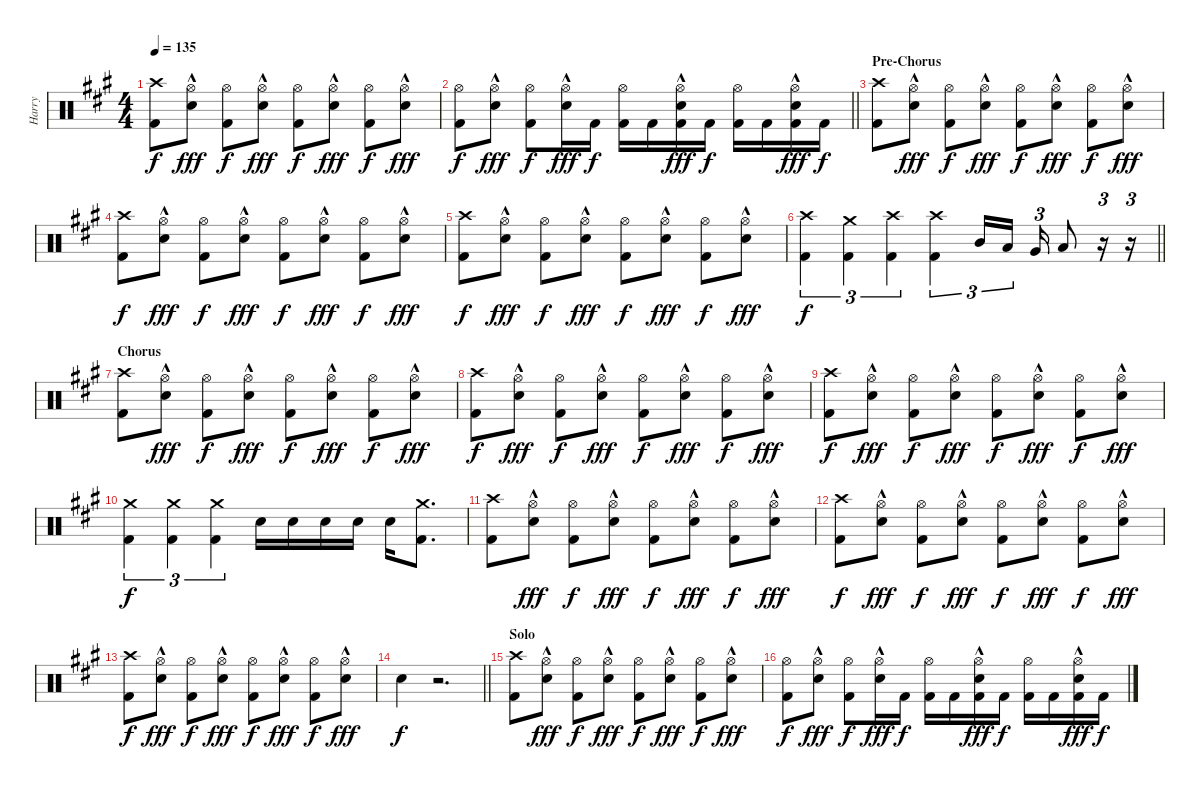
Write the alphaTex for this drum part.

\track ("Harry" "Harry") {instrument percussion}
\staff {score}
\articulation defaults
\ts (4 4)
\tempo 135
\clef neutral
\ks a
("Crash high (hit)" "Kick (hit) 2").8{dy f} ("Hi-Hat (open)"{hac} "Snare (hit) 2"{hac}).8{dy fff} ("Hi-Hat (open)" "Kick (hit) 2").8{dy f} ("Hi-Hat (open)"{hac} "Snare (hit) 2"{hac}).8{dy fff} ("Hi-Hat (open)" "Kick (hit) 2").8{dy f} ("Hi-Hat (open)"{hac} "Snare (hit) 2"{hac}).8{dy fff} ("Hi-Hat (open)" "Kick (hit) 2").8{dy f} ("Hi-Hat (open)"{hac} "Snare (hit) 2"{hac}).8{dy fff} |
\barLineRight lightlight
("Hi-Hat (open)" "Kick (hit) 2").8{dy f} ("Hi-Hat (open)"{hac} "Snare (hit) 2"{hac}).8{dy fff} ("Hi-Hat (open)" "Kick (hit) 2").8{dy f} ("Hi-Hat (open)"{hac} "Snare (hit) 2"{hac}).16{dy fff} "Kick (hit) 2".16{dy f} ("Hi-Hat (open)" "Kick (hit) 2").16 "Kick (hit) 2".16 ("Snare (hit) 2"{hac} "Hi-Hat (open)"{hac} "Kick (hit) 2"{hac}).16{dy fff} "Kick (hit) 2".16{dy f} ("Hi-Hat (open)" "Kick (hit) 2").16 "Kick (hit) 2".16 ("Snare (hit) 2"{hac} "Hi-Hat (open)"{hac} "Kick (hit) 2"{hac}).16{dy fff} "Kick (hit) 2".16{dy f} |
\section ("" "Pre-Chorus")
("Crash high (hit)" "Kick (hit) 2").8 ("Hi-Hat (open)"{hac} "Snare (hit) 2"{hac}).8{dy fff} ("Hi-Hat (open)" "Kick (hit) 2").8{dy f} ("Hi-Hat (open)"{hac} "Snare (hit) 2"{hac}).8{dy fff} ("Hi-Hat (open)" "Kick (hit) 2").8{dy f} ("Hi-Hat (open)"{hac} "Snare (hit) 2"{hac}).8{dy fff} ("Hi-Hat (open)" "Kick (hit) 2").8{dy f} ("Hi-Hat (open)"{hac} "Snare (hit) 2"{hac}).8{dy fff} |
("Crash high (hit)" "Kick (hit) 2").8{dy f} ("Hi-Hat (open)"{hac} "Snare (hit) 2"{hac}).8{dy fff} ("Hi-Hat (open)" "Kick (hit) 2").8{dy f} ("Hi-Hat (open)"{hac} "Snare (hit) 2"{hac}).8{dy fff} ("Hi-Hat (open)" "Kick (hit) 2").8{dy f} ("Hi-Hat (open)"{hac} "Snare (hit) 2"{hac}).8{dy fff} ("Hi-Hat (open)" "Kick (hit) 2").8{dy f} ("Hi-Hat (open)"{hac} "Snare (hit) 2"{hac}).8{dy fff} |
("Crash high (hit)" "Kick (hit) 2").8{dy f} ("Hi-Hat (open)"{hac} "Snare (hit) 2"{hac}).8{dy fff} ("Hi-Hat (open)" "Kick (hit) 2").8{dy f} ("Hi-Hat (open)"{hac} "Snare (hit) 2"{hac}).8{dy fff} ("Hi-Hat (open)" "Kick (hit) 2").8{dy f} ("Hi-Hat (open)"{hac} "Snare (hit) 2"{hac}).8{dy fff} ("Hi-Hat (open)" "Kick (hit) 2").8{dy f} ("Hi-Hat (open)"{hac} "Snare (hit) 2"{hac}).8{dy fff} |
\barLineRight lightlight
("Crash high (hit)" "Kick (hit) 2").4{tu (3 2) dy f} ("Crash medium (hit)" "Kick (hit) 2").4{tu (3 2)} ("Crash high (hit)" "Kick (hit) 2").4{tu (3 2)} ("Crash high (hit)" "Kick (hit) 2").4{tu (3 2)} "Mid Tom (hit)".16{tu (3 2)} "Low Tom (hit)".16{tu (3 2)} "Very Low Tom (hit)".16{tu (3 2)} "Low Floor Tom (hit)".8 r.16{tu (3 2)} r.16{tu (3 2)} |
\section ("" "Chorus")
("Crash high (hit)" "Kick (hit) 2").8 ("Hi-Hat (open)"{hac} "Snare (hit) 2"{hac}).8{dy fff} ("Hi-Hat (open)" "Kick (hit) 2").8{dy f} ("Hi-Hat (open)"{hac} "Snare (hit) 2"{hac}).8{dy fff} ("Hi-Hat (open)" "Kick (hit) 2").8{dy f} ("Hi-Hat (open)"{hac} "Snare (hit) 2"{hac}).8{dy fff} ("Hi-Hat (open)" "Kick (hit) 2").8{dy f} ("Hi-Hat (open)"{hac} "Snare (hit) 2"{hac}).8{dy fff} |
("Crash high (hit)" "Kick (hit) 2").8{dy f} ("Hi-Hat (open)"{hac} "Snare (hit) 2"{hac}).8{dy fff} ("Hi-Hat (open)" "Kick (hit) 2").8{dy f} ("Hi-Hat (open)"{hac} "Snare (hit) 2"{hac}).8{dy fff} ("Hi-Hat (open)" "Kick (hit) 2").8{dy f} ("Hi-Hat (open)"{hac} "Snare (hit) 2"{hac}).8{dy fff} ("Hi-Hat (open)" "Kick (hit) 2").8{dy f} ("Hi-Hat (open)"{hac} "Snare (hit) 2"{hac}).8{dy fff} |
("Crash high (hit)" "Kick (hit) 2").8{dy f} ("Hi-Hat (open)"{hac} "Snare (hit) 2"{hac}).8{dy fff} ("Hi-Hat (open)" "Kick (hit) 2").8{dy f} ("Hi-Hat (open)"{hac} "Snare (hit) 2"{hac}).8{dy fff} ("Hi-Hat (open)" "Kick (hit) 2").8{dy f} ("Hi-Hat (open)"{hac} "Snare (hit) 2"{hac}).8{dy fff} ("Hi-Hat (open)" "Kick (hit) 2").8{dy f} ("Hi-Hat (open)"{hac} "Snare (hit) 2"{hac}).8{dy fff} |
("Crash medium (hit)" "Kick (hit) 2").4{tu (3 2) dy f} ("Crash medium (hit)" "Kick (hit) 2").4{tu (3 2)} ("Crash medium (hit)" "Kick (hit) 2").4{tu (3 2)} "Snare (hit) 2".16 "Snare (hit) 2".16 "Snare (hit) 2".16 "Snare (hit) 2".16 "Snare (hit) 2".16 ("Crash medium (hit)" "Kick (hit) 2").8{d} |
("Crash high (hit)" "Kick (hit) 2").8 ("Hi-Hat (open)"{hac} "Snare (hit) 2"{hac}).8{dy fff} ("Hi-Hat (open)" "Kick (hit) 2").8{dy f} ("Hi-Hat (open)"{hac} "Snare (hit) 2"{hac}).8{dy fff} ("Hi-Hat (open)" "Kick (hit) 2").8{dy f} ("Hi-Hat (open)"{hac} "Snare (hit) 2"{hac}).8{dy fff} ("Hi-Hat (open)" "Kick (hit) 2").8{dy f} ("Hi-Hat (open)"{hac} "Snare (hit) 2"{hac}).8{dy fff} |
("Crash high (hit)" "Kick (hit) 2").8{dy f} ("Hi-Hat (open)"{hac} "Snare (hit) 2"{hac}).8{dy fff} ("Hi-Hat (open)" "Kick (hit) 2").8{dy f} ("Hi-Hat (open)"{hac} "Snare (hit) 2"{hac}).8{dy fff} ("Hi-Hat (open)" "Kick (hit) 2").8{dy f} ("Hi-Hat (open)"{hac} "Snare (hit) 2"{hac}).8{dy fff} ("Hi-Hat (open)" "Kick (hit) 2").8{dy f} ("Hi-Hat (open)"{hac} "Snare (hit) 2"{hac}).8{dy fff} |
("Crash high (hit)" "Kick (hit) 2").8{dy f} ("Hi-Hat (open)"{hac} "Snare (hit) 2"{hac}).8{dy fff} ("Hi-Hat (open)" "Kick (hit) 2").8{dy f} ("Hi-Hat (open)"{hac} "Snare (hit) 2"{hac}).8{dy fff} ("Hi-Hat (open)" "Kick (hit) 2").8{dy f} ("Hi-Hat (open)"{hac} "Snare (hit) 2"{hac}).8{dy fff} ("Hi-Hat (open)" "Kick (hit) 2").8{dy f} ("Hi-Hat (open)"{hac} "Snare (hit) 2"{hac}).8{dy fff} |
\barLineRight lightlight "Snare (hit) 2".4{dy f}
r.2{d} |
\section ("" "Solo")
("Crash high (hit)" "Kick (hit) 2").8 ("Hi-Hat (open)"{hac} "Snare (hit) 2"{hac}).8{dy fff} ("Hi-Hat (open)" "Kick (hit) 2").8{dy f} ("Hi-Hat (open)"{hac} "Snare (hit) 2"{hac}).8{dy fff} ("Hi-Hat (open)" "Kick (hit) 2").8{dy f} ("Hi-Hat (open)"{hac} "Snare (hit) 2"{hac}).8{dy fff} ("Hi-Hat (open)" "Kick (hit) 2").8{dy f} ("Hi-Hat (open)"{hac} "Snare (hit) 2"{hac}).8{dy fff} |
("Hi-Hat (open)" "Kick (hit) 2").8{dy f} ("Hi-Hat (open)"{hac} "Snare (hit) 2"{hac}).8{dy fff} ("Hi-Hat (open)" "Kick (hit) 2").8{dy f} ("Hi-Hat (open)"{hac} "Snare (hit) 2"{hac}).16{dy fff} "Kick (hit) 2".16{dy f} ("Hi-Hat (open)" "Kick (hit) 2").16 "Kick (hit) 2".16 ("Snare (hit) 2"{hac} "Hi-Hat (open)"{hac} "Kick (hit) 2"{hac}).16{dy fff} "Kick (hit) 2".16{dy f} ("Hi-Hat (open)" "Kick (hit) 2").16 "Kick (hit) 2".16 ("Snare (hit) 2"{hac} "Hi-Hat (open)"{hac} "Kick (hit) 2"{hac}).16{dy fff} "Kick (hit) 2".16{dy f}
